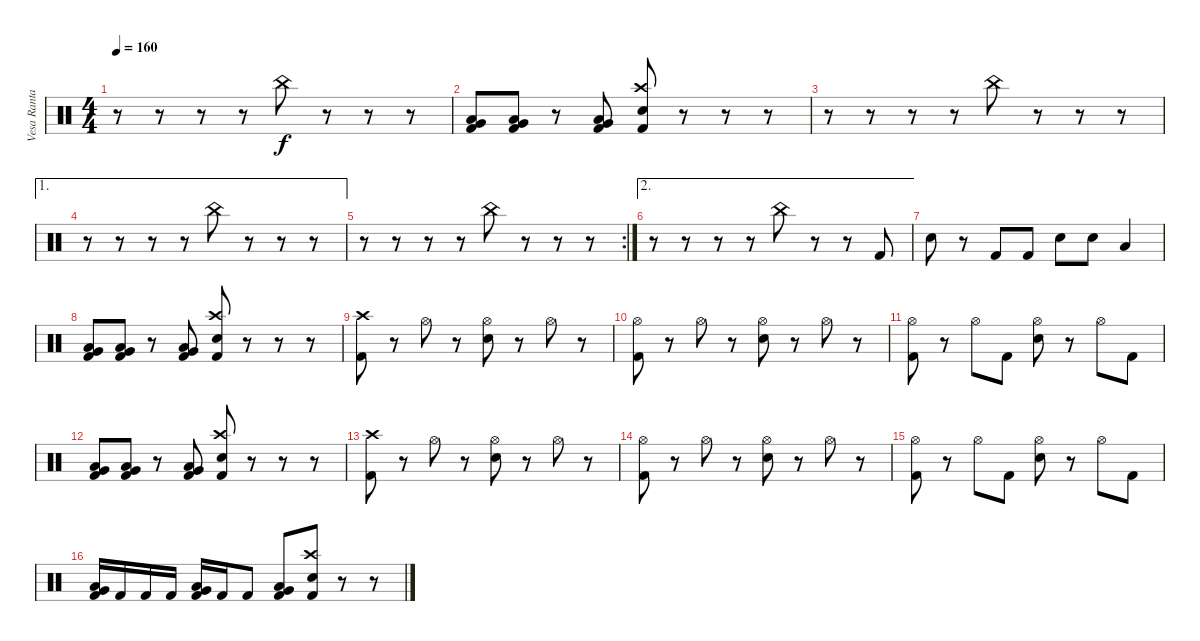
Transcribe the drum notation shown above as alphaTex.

\track ("Vesa Ranta" "Vesa Ranta") {instrument percussion}
\staff {score}
\articulation defaults
\ts (4 4)
\tempo 160
\clef neutral
\ks c
r.8{dy f} r.8 r.8 r.8 "China (hit)".8 r.8 r.8 r.8 |
("Very Low Tom (hit)" "Low Tom (hit)" "Kick (hit) 2").8 ("Very Low Tom (hit)" "Low Tom (hit)" "Kick (hit) 2").8 r.8 ("Very Low Tom (hit)" "Low Tom (hit)" "Kick (hit) 2").8 ("Crash high (hit)" "Electric Snare (hit)" "Kick (hit) 2").8 r.8 r.8 r.8 |
r.8 r.8 r.8 r.8 "China (hit)".8 r.8 r.8 r.8 |
\ae 1
r.8 r.8 r.8 r.8 "China (hit)".8 r.8 r.8 r.8 |
\rc 2
r.8 r.8 r.8 r.8 "China (hit)".8 r.8 r.8 r.8 |
\ae 2
r.8 r.8 r.8 r.8 "China (hit)".8 r.8 r.8 "Kick (hit) 2".8 |
"Electric Snare (hit)".8 r.8 "Kick (hit) 2".8 "Kick (hit) 2".8 "Electric Snare (hit)".8 "Electric Snare (hit)".8 "Low Tom (hit)".4 |
("Very Low Tom (hit)" "Low Tom (hit)" "Kick (hit) 2").8 ("Very Low Tom (hit)" "Low Tom (hit)" "Kick (hit) 2").8 r.8 ("Very Low Tom (hit)" "Low Tom (hit)" "Kick (hit) 2").8 ("Crash high (hit)" "Electric Snare (hit)" "Kick (hit) 2").8 r.8 r.8 r.8 |
("Crash high (hit)" "Kick (hit) 2").8 r.8 "Hi-Hat (open)".8 r.8 ("Hi-Hat (open)" "Electric Snare (hit)").8 r.8 "Hi-Hat (open)".8 r.8 |
("Hi-Hat (open)" "Kick (hit) 2").8 r.8 "Hi-Hat (open)".8 r.8 ("Hi-Hat (open)" "Electric Snare (hit)").8 r.8 "Hi-Hat (open)".8 r.8 |
("Hi-Hat (open)" "Kick (hit) 2").8 r.8 "Hi-Hat (open)".8 "Kick (hit) 2".8 ("Hi-Hat (open)" "Electric Snare (hit)").8 r.8 "Hi-Hat (open)".8 "Kick (hit) 2".8 |
("Very Low Tom (hit)" "Low Tom (hit)" "Kick (hit) 2").8 ("Very Low Tom (hit)" "Low Tom (hit)" "Kick (hit) 2").8 r.8 ("Very Low Tom (hit)" "Low Tom (hit)" "Kick (hit) 2").8 ("Crash high (hit)" "Electric Snare (hit)" "Kick (hit) 2").8 r.8 r.8 r.8 |
("Crash high (hit)" "Kick (hit) 2").8 r.8 "Hi-Hat (open)".8 r.8 ("Hi-Hat (open)" "Electric Snare (hit)").8 r.8 "Hi-Hat (open)".8 r.8 |
("Hi-Hat (open)" "Kick (hit) 2").8 r.8 "Hi-Hat (open)".8 r.8 ("Hi-Hat (open)" "Electric Snare (hit)").8 r.8 "Hi-Hat (open)".8 r.8 |
("Hi-Hat (open)" "Kick (hit) 2").8 r.8 "Hi-Hat (open)".8 "Kick (hit) 2".8 ("Hi-Hat (open)" "Electric Snare (hit)").8 r.8 "Hi-Hat (open)".8 "Kick (hit) 2".8 |
("Very Low Tom (hit)" "Low Tom (hit)" "Kick (hit) 2").16 "Kick (hit) 2".16 "Kick (hit) 2".16 "Kick (hit) 2".16 ("Very Low Tom (hit)" "Low Tom (hit)" "Kick (hit) 2").16 "Kick (hit) 2".16 "Kick (hit) 2".8 ("Very Low Tom (hit)" "Low Tom (hit)" "Kick (hit) 2").8 ("Crash high (hit)" "Electric Snare (hit)" "Kick (hit) 2").8 r.8 r.8
